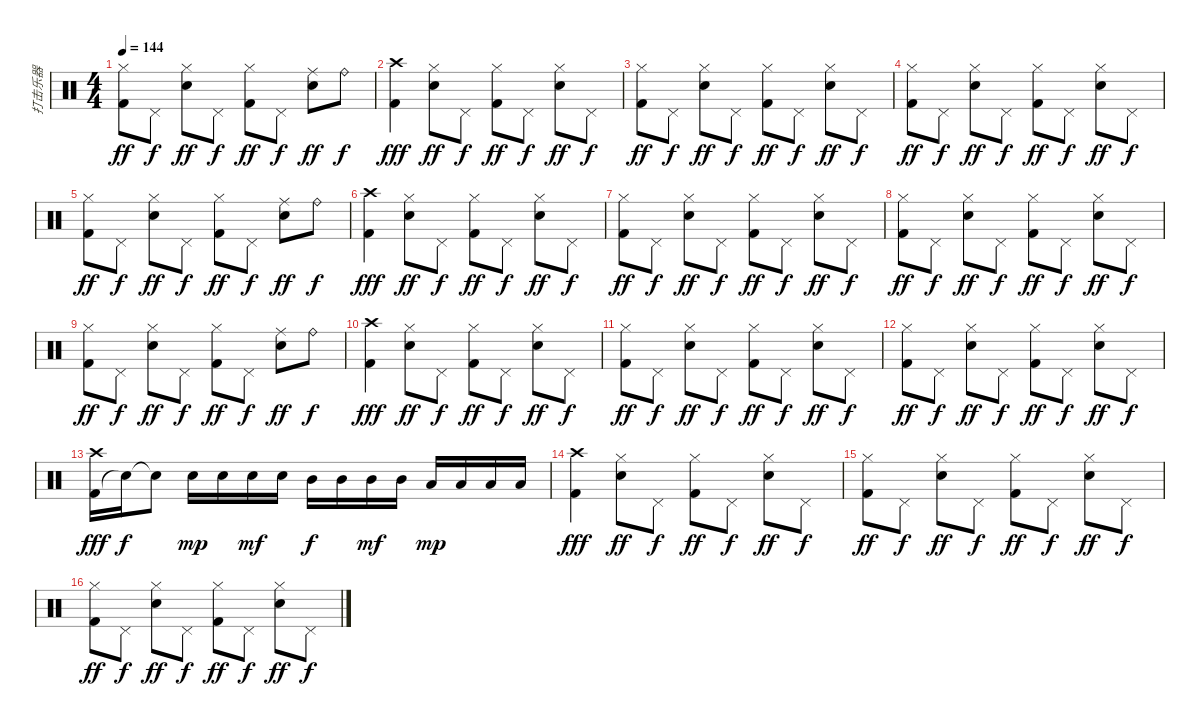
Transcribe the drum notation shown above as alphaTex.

\track ("打击乐器" "打击乐器") {instrument percussion}
\staff {score}
\articulation defaults
\ts (4 4)
\tempo 144
\clef neutral
\ks c
("Kick (hit) 2" "Hi-Hat (closed)").8{dy ff} "Pedal Hi-Hat (hit)".8{dy f} ("Snare (hit) 2" "Hi-Hat (closed)").8{dy ff} "Pedal Hi-Hat (hit)".8{dy f} ("Kick (hit) 2" "Hi-Hat (closed)").8{dy ff} "Pedal Hi-Hat (hit)".8{dy f} ("Snare (hit) 2" "Ride (middle)").8{dy ff} "Ride (bell)".8{dy f} |
("Kick (hit) 2" "Crash high (hit)").4{dy fff} ("Snare (hit) 2" "Hi-Hat (closed)").8{dy ff} "Pedal Hi-Hat (hit)".8{dy f} ("Kick (hit) 2" "Hi-Hat (closed)").8{dy ff} "Pedal Hi-Hat (hit)".8{dy f} ("Snare (hit) 2" "Hi-Hat (closed)").8{dy ff} "Pedal Hi-Hat (hit)".8{dy f} |
("Kick (hit) 2" "Hi-Hat (closed)").8{dy ff} "Pedal Hi-Hat (hit)".8{dy f} ("Snare (hit) 2" "Hi-Hat (closed)").8{dy ff} "Pedal Hi-Hat (hit)".8{dy f} ("Kick (hit) 2" "Hi-Hat (closed)").8{dy ff} "Pedal Hi-Hat (hit)".8{dy f} ("Snare (hit) 2" "Hi-Hat (closed)").8{dy ff} "Pedal Hi-Hat (hit)".8{dy f} |
("Kick (hit) 2" "Hi-Hat (closed)").8{dy ff} "Pedal Hi-Hat (hit)".8{dy f} ("Snare (hit) 2" "Hi-Hat (closed)").8{dy ff} "Pedal Hi-Hat (hit)".8{dy f} ("Kick (hit) 2" "Hi-Hat (closed)").8{dy ff} "Pedal Hi-Hat (hit)".8{dy f} ("Snare (hit) 2" "Hi-Hat (closed)").8{dy ff} "Pedal Hi-Hat (hit)".8{dy f} |
("Kick (hit) 2" "Hi-Hat (closed)").8{dy ff} "Pedal Hi-Hat (hit)".8{dy f} ("Snare (hit) 2" "Hi-Hat (closed)").8{dy ff} "Pedal Hi-Hat (hit)".8{dy f} ("Kick (hit) 2" "Hi-Hat (closed)").8{dy ff} "Pedal Hi-Hat (hit)".8{dy f} ("Snare (hit) 2" "Ride (middle)").8{dy ff} "Ride (bell)".8{dy f} |
("Kick (hit) 2" "Crash high (hit)").4{dy fff} ("Snare (hit) 2" "Hi-Hat (closed)").8{dy ff} "Pedal Hi-Hat (hit)".8{dy f} ("Kick (hit) 2" "Hi-Hat (closed)").8{dy ff} "Pedal Hi-Hat (hit)".8{dy f} ("Snare (hit) 2" "Hi-Hat (closed)").8{dy ff} "Pedal Hi-Hat (hit)".8{dy f} |
("Kick (hit) 2" "Hi-Hat (closed)").8{dy ff} "Pedal Hi-Hat (hit)".8{dy f} ("Snare (hit) 2" "Hi-Hat (closed)").8{dy ff} "Pedal Hi-Hat (hit)".8{dy f} ("Kick (hit) 2" "Hi-Hat (closed)").8{dy ff} "Pedal Hi-Hat (hit)".8{dy f} ("Snare (hit) 2" "Hi-Hat (closed)").8{dy ff} "Pedal Hi-Hat (hit)".8{dy f} |
("Kick (hit) 2" "Hi-Hat (closed)").8{dy ff} "Pedal Hi-Hat (hit)".8{dy f} ("Snare (hit) 2" "Hi-Hat (closed)").8{dy ff} "Pedal Hi-Hat (hit)".8{dy f} ("Kick (hit) 2" "Hi-Hat (closed)").8{dy ff} "Pedal Hi-Hat (hit)".8{dy f} ("Snare (hit) 2" "Hi-Hat (closed)").8{dy ff} "Pedal Hi-Hat (hit)".8{dy f} |
("Kick (hit) 2" "Hi-Hat (closed)").8{dy ff} "Pedal Hi-Hat (hit)".8{dy f} ("Snare (hit) 2" "Hi-Hat (closed)").8{dy ff} "Pedal Hi-Hat (hit)".8{dy f} ("Kick (hit) 2" "Hi-Hat (closed)").8{dy ff} "Pedal Hi-Hat (hit)".8{dy f} ("Snare (hit) 2" "Ride (middle)").8{dy ff} "Ride (bell)".8{dy f} |
("Kick (hit) 2" "Crash high (hit)").4{dy fff} ("Snare (hit) 2" "Hi-Hat (closed)").8{dy ff} "Pedal Hi-Hat (hit)".8{dy f} ("Kick (hit) 2" "Hi-Hat (closed)").8{dy ff} "Pedal Hi-Hat (hit)".8{dy f} ("Snare (hit) 2" "Hi-Hat (closed)").8{dy ff} "Pedal Hi-Hat (hit)".8{dy f} |
("Kick (hit) 2" "Hi-Hat (closed)").8{dy ff} "Pedal Hi-Hat (hit)".8{dy f} ("Snare (hit) 2" "Hi-Hat (closed)").8{dy ff} "Pedal Hi-Hat (hit)".8{dy f} ("Kick (hit) 2" "Hi-Hat (closed)").8{dy ff} "Pedal Hi-Hat (hit)".8{dy f} ("Snare (hit) 2" "Hi-Hat (closed)").8{dy ff} "Pedal Hi-Hat (hit)".8{dy f} |
("Kick (hit) 2" "Hi-Hat (closed)").8{dy ff} "Pedal Hi-Hat (hit)".8{dy f} ("Snare (hit) 2" "Hi-Hat (closed)").8{dy ff} "Pedal Hi-Hat (hit)".8{dy f} ("Kick (hit) 2" "Hi-Hat (closed)").8{dy ff} "Pedal Hi-Hat (hit)".8{dy f} ("Snare (hit) 2" "Hi-Hat (closed)").8{dy ff} "Pedal Hi-Hat (hit)".8{dy f} |
("Kick (hit) 2" "Crash high (hit)").16{dy fff} "Snare (hit) 2"{t}.16{dy f} "Snare (hit) 2"{t}.8 "Snare (hit) 2".16{dy mp} "Snare (hit) 2".16 "Snare (hit) 2".16{dy mf} "Snare (hit) 2".16 "Mid Tom (hit)".16{dy f} "Mid Tom (hit)".16 "Mid Tom (hit)".16{dy mf} "Mid Tom (hit)".16 "Low Tom (hit)".16{dy mp} "Low Tom (hit)".16 "Low Tom (hit)".16 "Low Tom (hit)".16 |
("Kick (hit) 2" "Crash high (hit)").4{dy fff} ("Snare (hit) 2" "Hi-Hat (closed)").8{dy ff} "Pedal Hi-Hat (hit)".8{dy f} ("Kick (hit) 2" "Hi-Hat (closed)").8{dy ff} "Pedal Hi-Hat (hit)".8{dy f} ("Snare (hit) 2" "Hi-Hat (closed)").8{dy ff} "Pedal Hi-Hat (hit)".8{dy f} |
("Kick (hit) 2" "Hi-Hat (closed)").8{dy ff} "Pedal Hi-Hat (hit)".8{dy f} ("Snare (hit) 2" "Hi-Hat (closed)").8{dy ff} "Pedal Hi-Hat (hit)".8{dy f} ("Kick (hit) 2" "Hi-Hat (closed)").8{dy ff} "Pedal Hi-Hat (hit)".8{dy f} ("Snare (hit) 2" "Hi-Hat (closed)").8{dy ff} "Pedal Hi-Hat (hit)".8{dy f} |
("Kick (hit) 2" "Hi-Hat (closed)").8{dy ff} "Pedal Hi-Hat (hit)".8{dy f} ("Snare (hit) 2" "Hi-Hat (closed)").8{dy ff} "Pedal Hi-Hat (hit)".8{dy f} ("Kick (hit) 2" "Hi-Hat (closed)").8{dy ff} "Pedal Hi-Hat (hit)".8{dy f} ("Snare (hit) 2" "Hi-Hat (closed)").8{dy ff} "Pedal Hi-Hat (hit)".8{dy f}
